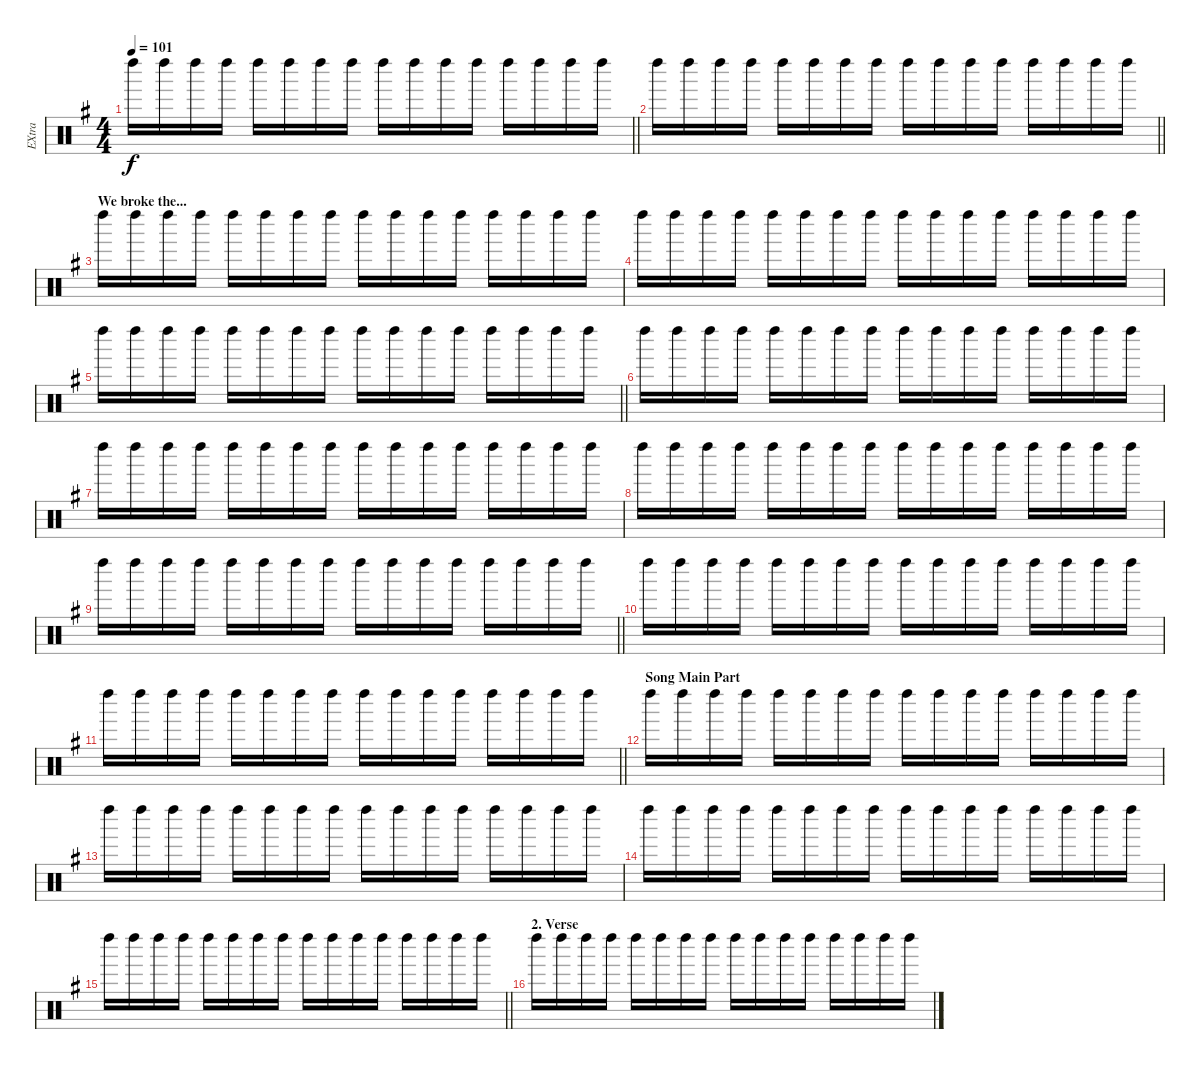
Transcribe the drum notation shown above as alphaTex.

\track ("EXtra" "EXtra") {instrument percussion}
\staff {score}
\articulation defaults
\ts (4 4)
\tempo 101
\clef neutral
\barLineRight lightlight
\ks g "Left Maraca (hit)".16{dy f} "Left Maraca (hit)".16 "Left Maraca (hit)".16 "Left Maraca (hit)".16 "Left Maraca (hit)".16 "Left Maraca (hit)".16 "Left Maraca (hit)".16 "Left Maraca (hit)".16 "Left Maraca (hit)".16 "Left Maraca (hit)".16 "Left Maraca (hit)".16 "Left Maraca (hit)".16 "Left Maraca (hit)".16 "Left Maraca (hit)".16 "Left Maraca (hit)".16 "Left Maraca (hit)".16
|
\barLineRight lightlight "Left Maraca (hit)".16 "Left Maraca (hit)".16 "Left Maraca (hit)".16 "Left Maraca (hit)".16 "Left Maraca (hit)".16 "Left Maraca (hit)".16 "Left Maraca (hit)".16 "Left Maraca (hit)".16 "Left Maraca (hit)".16 "Left Maraca (hit)".16 "Left Maraca (hit)".16 "Left Maraca (hit)".16 "Left Maraca (hit)".16 "Left Maraca (hit)".16 "Left Maraca (hit)".16 "Left Maraca (hit)".16
|
\section ("" "We broke the...")
"Left Maraca (hit)".16 "Left Maraca (hit)".16 "Left Maraca (hit)".16 "Left Maraca (hit)".16 "Left Maraca (hit)".16 "Left Maraca (hit)".16 "Left Maraca (hit)".16 "Left Maraca (hit)".16 "Left Maraca (hit)".16 "Left Maraca (hit)".16 "Left Maraca (hit)".16 "Left Maraca (hit)".16 "Left Maraca (hit)".16 "Left Maraca (hit)".16 "Left Maraca (hit)".16 "Left Maraca (hit)".16 |
"Left Maraca (hit)".16 "Left Maraca (hit)".16 "Left Maraca (hit)".16 "Left Maraca (hit)".16 "Left Maraca (hit)".16 "Left Maraca (hit)".16 "Left Maraca (hit)".16 "Left Maraca (hit)".16 "Left Maraca (hit)".16 "Left Maraca (hit)".16 "Left Maraca (hit)".16 "Left Maraca (hit)".16 "Left Maraca (hit)".16 "Left Maraca (hit)".16 "Left Maraca (hit)".16 "Left Maraca (hit)".16 |
\barLineRight lightlight "Left Maraca (hit)".16 "Left Maraca (hit)".16 "Left Maraca (hit)".16 "Left Maraca (hit)".16 "Left Maraca (hit)".16 "Left Maraca (hit)".16 "Left Maraca (hit)".16 "Left Maraca (hit)".16 "Left Maraca (hit)".16 "Left Maraca (hit)".16 "Left Maraca (hit)".16 "Left Maraca (hit)".16 "Left Maraca (hit)".16 "Left Maraca (hit)".16 "Left Maraca (hit)".16 "Left Maraca (hit)".16
|
"Left Maraca (hit)".16 "Left Maraca (hit)".16 "Left Maraca (hit)".16 "Left Maraca (hit)".16 "Left Maraca (hit)".16 "Left Maraca (hit)".16 "Left Maraca (hit)".16 "Left Maraca (hit)".16 "Left Maraca (hit)".16 "Left Maraca (hit)".16 "Left Maraca (hit)".16 "Left Maraca (hit)".16 "Left Maraca (hit)".16 "Left Maraca (hit)".16 "Left Maraca (hit)".16 "Left Maraca (hit)".16 |
"Left Maraca (hit)".16 "Left Maraca (hit)".16 "Left Maraca (hit)".16 "Left Maraca (hit)".16 "Left Maraca (hit)".16 "Left Maraca (hit)".16 "Left Maraca (hit)".16 "Left Maraca (hit)".16 "Left Maraca (hit)".16 "Left Maraca (hit)".16 "Left Maraca (hit)".16 "Left Maraca (hit)".16 "Left Maraca (hit)".16 "Left Maraca (hit)".16 "Left Maraca (hit)".16 "Left Maraca (hit)".16 |
"Left Maraca (hit)".16 "Left Maraca (hit)".16 "Left Maraca (hit)".16 "Left Maraca (hit)".16 "Left Maraca (hit)".16 "Left Maraca (hit)".16 "Left Maraca (hit)".16 "Left Maraca (hit)".16 "Left Maraca (hit)".16 "Left Maraca (hit)".16 "Left Maraca (hit)".16 "Left Maraca (hit)".16 "Left Maraca (hit)".16 "Left Maraca (hit)".16 "Left Maraca (hit)".16 "Left Maraca (hit)".16 |
\barLineRight lightlight "Left Maraca (hit)".16 "Left Maraca (hit)".16 "Left Maraca (hit)".16 "Left Maraca (hit)".16 "Left Maraca (hit)".16 "Left Maraca (hit)".16 "Left Maraca (hit)".16 "Left Maraca (hit)".16 "Left Maraca (hit)".16 "Left Maraca (hit)".16 "Left Maraca (hit)".16 "Left Maraca (hit)".16 "Left Maraca (hit)".16 "Left Maraca (hit)".16 "Left Maraca (hit)".16 "Left Maraca (hit)".16
|
"Left Maraca (hit)".16 "Left Maraca (hit)".16 "Left Maraca (hit)".16 "Left Maraca (hit)".16 "Left Maraca (hit)".16 "Left Maraca (hit)".16 "Left Maraca (hit)".16 "Left Maraca (hit)".16 "Left Maraca (hit)".16 "Left Maraca (hit)".16 "Left Maraca (hit)".16 "Left Maraca (hit)".16 "Left Maraca (hit)".16 "Left Maraca (hit)".16 "Left Maraca (hit)".16 "Left Maraca (hit)".16 |
\barLineRight lightlight "Left Maraca (hit)".16 "Left Maraca (hit)".16 "Left Maraca (hit)".16 "Left Maraca (hit)".16 "Left Maraca (hit)".16 "Left Maraca (hit)".16 "Left Maraca (hit)".16 "Left Maraca (hit)".16 "Left Maraca (hit)".16 "Left Maraca (hit)".16 "Left Maraca (hit)".16 "Left Maraca (hit)".16 "Left Maraca (hit)".16 "Left Maraca (hit)".16 "Left Maraca (hit)".16 "Left Maraca (hit)".16
|
\section ("" "Song Main Part")
"Left Maraca (hit)".16 "Left Maraca (hit)".16 "Left Maraca (hit)".16 "Left Maraca (hit)".16 "Left Maraca (hit)".16 "Left Maraca (hit)".16 "Left Maraca (hit)".16 "Left Maraca (hit)".16 "Left Maraca (hit)".16 "Left Maraca (hit)".16 "Left Maraca (hit)".16 "Left Maraca (hit)".16 "Left Maraca (hit)".16 "Left Maraca (hit)".16 "Left Maraca (hit)".16 "Left Maraca (hit)".16 |
"Left Maraca (hit)".16 "Left Maraca (hit)".16 "Left Maraca (hit)".16 "Left Maraca (hit)".16 "Left Maraca (hit)".16 "Left Maraca (hit)".16 "Left Maraca (hit)".16 "Left Maraca (hit)".16 "Left Maraca (hit)".16 "Left Maraca (hit)".16 "Left Maraca (hit)".16 "Left Maraca (hit)".16 "Left Maraca (hit)".16 "Left Maraca (hit)".16 "Left Maraca (hit)".16 "Left Maraca (hit)".16 |
"Left Maraca (hit)".16 "Left Maraca (hit)".16 "Left Maraca (hit)".16 "Left Maraca (hit)".16 "Left Maraca (hit)".16 "Left Maraca (hit)".16 "Left Maraca (hit)".16 "Left Maraca (hit)".16 "Left Maraca (hit)".16 "Left Maraca (hit)".16 "Left Maraca (hit)".16 "Left Maraca (hit)".16 "Left Maraca (hit)".16 "Left Maraca (hit)".16 "Left Maraca (hit)".16 "Left Maraca (hit)".16 |
\barLineRight lightlight "Left Maraca (hit)".16 "Left Maraca (hit)".16 "Left Maraca (hit)".16 "Left Maraca (hit)".16 "Left Maraca (hit)".16 "Left Maraca (hit)".16 "Left Maraca (hit)".16 "Left Maraca (hit)".16 "Left Maraca (hit)".16 "Left Maraca (hit)".16 "Left Maraca (hit)".16 "Left Maraca (hit)".16 "Left Maraca (hit)".16 "Left Maraca (hit)".16 "Left Maraca (hit)".16 "Left Maraca (hit)".16
|
\section ("" "2. Verse")
"Left Maraca (hit)".16 "Left Maraca (hit)".16 "Left Maraca (hit)".16 "Left Maraca (hit)".16 "Left Maraca (hit)".16 "Left Maraca (hit)".16 "Left Maraca (hit)".16 "Left Maraca (hit)".16 "Left Maraca (hit)".16 "Left Maraca (hit)".16 "Left Maraca (hit)".16 "Left Maraca (hit)".16 "Left Maraca (hit)".16 "Left Maraca (hit)".16 "Left Maraca (hit)".16 "Left Maraca (hit)".16
